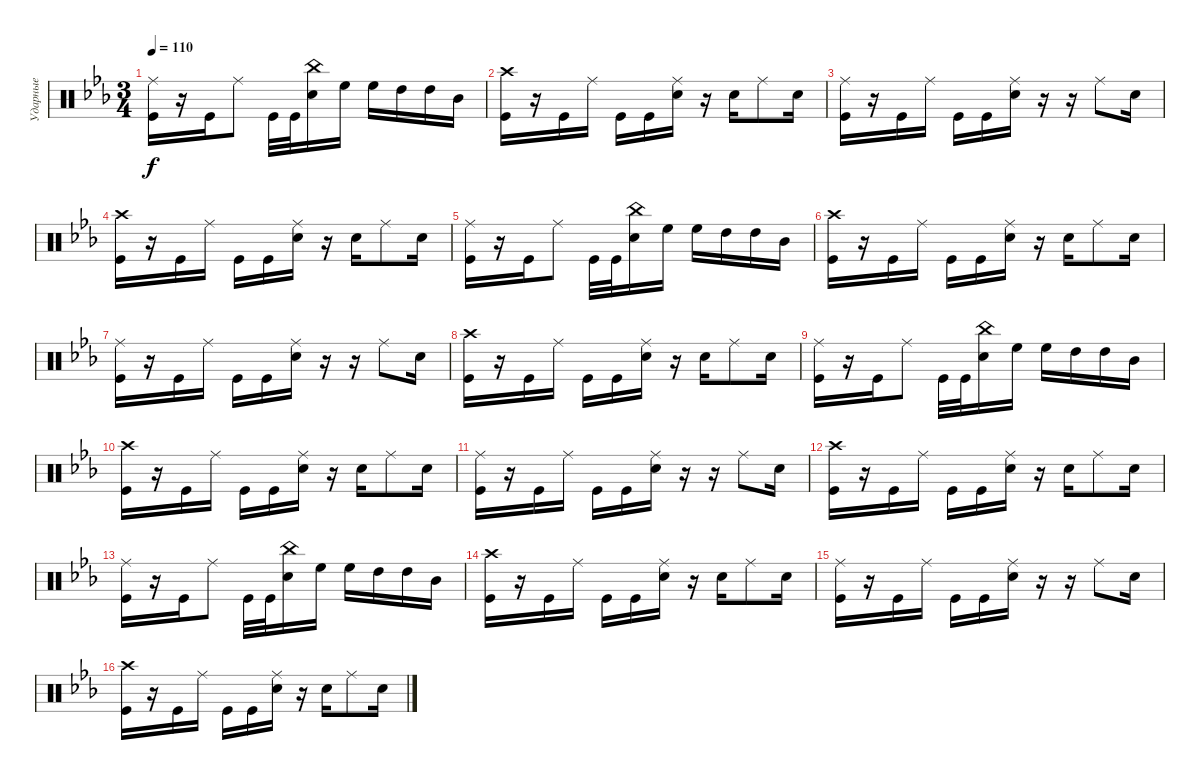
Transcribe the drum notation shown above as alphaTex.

\track ("Ударные" "Ударные") {instrument percussion}
\staff {score}
\articulation defaults
\ts (3 4)
\tempo 110
\clef neutral
\ks cminor
("Kick (hit)" "Ride (middle)").16{dy f} r.16 "Kick (hit)".16 "Ride (middle)".8 "Kick (hit)".32 "Kick (hit)".32 ("Snare (hit) 2" "China (hit)").16 "High Floor Tom (hit)".16 "High Floor Tom (hit)".16 "High Tom (hit)".16 "High Tom (hit)".16 "Mid Tom (hit)".16 |
("Kick (hit)" "Crash high (hit)").16 r.16 "Kick (hit)".16 "Ride (middle)".16 "Kick (hit)".16 "Kick (hit)".16 ("Snare (hit) 2" "Ride (middle)").16 r.16 "Snare (hit) 2".16 "Ride (middle)".8 "Snare (hit) 2".16 |
("Kick (hit)" "Ride (middle)").16 r.16 "Kick (hit)".16 "Ride (middle)".16 "Kick (hit)".16 "Kick (hit)".16 ("Snare (hit) 2" "Ride (middle)").16 r.16 r.16 "Ride (middle)".8 "Snare (hit) 2".16 |
("Kick (hit)" "Crash high (hit)").16 r.16 "Kick (hit)".16 "Ride (middle)".16 "Kick (hit)".16 "Kick (hit)".16 ("Snare (hit) 2" "Ride (middle)").16 r.16 "Snare (hit) 2".16 "Ride (middle)".8 "Snare (hit) 2".16 |
("Kick (hit)" "Ride (middle)").16 r.16 "Kick (hit)".16 "Ride (middle)".8 "Kick (hit)".32 "Kick (hit)".32 ("Snare (hit) 2" "China (hit)").16 "High Floor Tom (hit)".16 "High Floor Tom (hit)".16 "High Tom (hit)".16 "High Tom (hit)".16 "Mid Tom (hit)".16 |
("Kick (hit)" "Crash high (hit)").16 r.16 "Kick (hit)".16 "Ride (middle)".16 "Kick (hit)".16 "Kick (hit)".16 ("Snare (hit) 2" "Ride (middle)").16 r.16 "Snare (hit) 2".16 "Ride (middle)".8 "Snare (hit) 2".16 |
("Kick (hit)" "Ride (middle)").16 r.16 "Kick (hit)".16 "Ride (middle)".16 "Kick (hit)".16 "Kick (hit)".16 ("Snare (hit) 2" "Ride (middle)").16 r.16 r.16 "Ride (middle)".8 "Snare (hit) 2".16 |
("Kick (hit)" "Crash high (hit)").16 r.16 "Kick (hit)".16 "Ride (middle)".16 "Kick (hit)".16 "Kick (hit)".16 ("Snare (hit) 2" "Ride (middle)").16 r.16 "Snare (hit) 2".16 "Ride (middle)".8 "Snare (hit) 2".16 |
("Kick (hit)" "Ride (middle)").16 r.16 "Kick (hit)".16 "Ride (middle)".8 "Kick (hit)".32 "Kick (hit)".32 ("Snare (hit) 2" "China (hit)").16 "High Floor Tom (hit)".16 "High Floor Tom (hit)".16 "High Tom (hit)".16 "High Tom (hit)".16 "Mid Tom (hit)".16 |
("Kick (hit)" "Crash high (hit)").16 r.16 "Kick (hit)".16 "Ride (middle)".16 "Kick (hit)".16 "Kick (hit)".16 ("Snare (hit) 2" "Ride (middle)").16 r.16 "Snare (hit) 2".16 "Ride (middle)".8 "Snare (hit) 2".16 |
("Kick (hit)" "Ride (middle)").16 r.16 "Kick (hit)".16 "Ride (middle)".16 "Kick (hit)".16 "Kick (hit)".16 ("Snare (hit) 2" "Ride (middle)").16 r.16 r.16 "Ride (middle)".8 "Snare (hit) 2".16 |
("Kick (hit)" "Crash high (hit)").16 r.16 "Kick (hit)".16 "Ride (middle)".16 "Kick (hit)".16 "Kick (hit)".16 ("Snare (hit) 2" "Ride (middle)").16 r.16 "Snare (hit) 2".16 "Ride (middle)".8 "Snare (hit) 2".16 |
("Kick (hit)" "Ride (middle)").16 r.16 "Kick (hit)".16 "Ride (middle)".8 "Kick (hit)".32 "Kick (hit)".32 ("Snare (hit) 2" "China (hit)").16 "High Floor Tom (hit)".16 "High Floor Tom (hit)".16 "High Tom (hit)".16 "High Tom (hit)".16 "Mid Tom (hit)".16 |
("Kick (hit)" "Crash high (hit)").16 r.16 "Kick (hit)".16 "Ride (middle)".16 "Kick (hit)".16 "Kick (hit)".16 ("Snare (hit) 2" "Ride (middle)").16 r.16 "Snare (hit) 2".16 "Ride (middle)".8 "Snare (hit) 2".16 |
("Kick (hit)" "Ride (middle)").16 r.16 "Kick (hit)".16 "Ride (middle)".16 "Kick (hit)".16 "Kick (hit)".16 ("Snare (hit) 2" "Ride (middle)").16 r.16 r.16 "Ride (middle)".8 "Snare (hit) 2".16 |
("Kick (hit)" "Crash high (hit)").16 r.16 "Kick (hit)".16 "Ride (middle)".16 "Kick (hit)".16 "Kick (hit)".16 ("Snare (hit) 2" "Ride (middle)").16 r.16 "Snare (hit) 2".16 "Ride (middle)".8 "Snare (hit) 2".16
